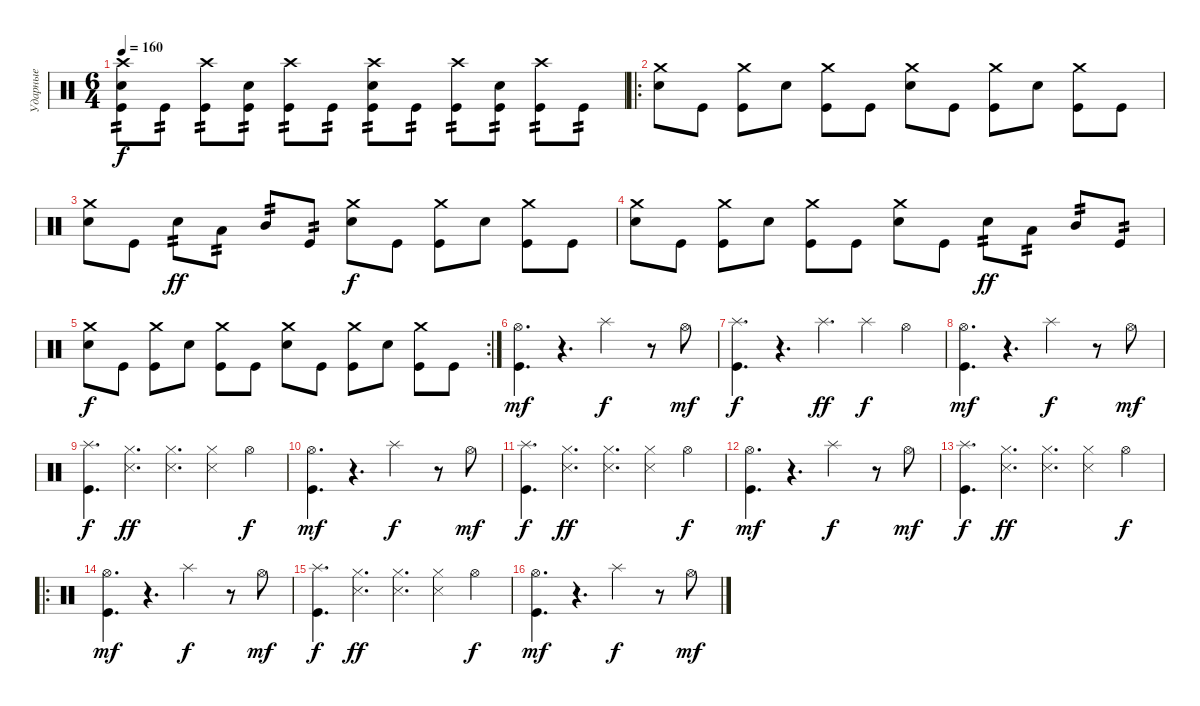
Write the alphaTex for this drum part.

\track ("Ударные" "Ударные") {instrument percussion}
\staff {score}
\articulation defaults
\ts (6 4)
\tempo 160
\clef neutral
\ks c
("Crash high (hit)" "Snare (hit) 2" "Kick (hit)").8{tp 2 dy f} "Kick (hit)".8{tp 2} ("Crash high (hit)" "Kick (hit)").8{tp 2} ("Snare (hit) 2" "Kick (hit)").8{tp 2} ("Crash high (hit)" "Kick (hit)").8{tp 2} "Kick (hit)".8{tp 2} ("Crash high (hit)" "Snare (hit) 2" "Kick (hit)").8{tp 2} "Kick (hit)".8{tp 2} ("Crash high (hit)" "Kick (hit)").8{tp 2} ("Snare (hit) 2" "Kick (hit)").8{tp 2} ("Crash high (hit)" "Kick (hit)").8{tp 2} "Kick (hit)".8{tp 2} |
\ro
("Crash medium (hit)" "Snare (hit) 2").8 "Kick (hit)".8 ("Crash medium (hit)" "Kick (hit)").8 "Snare (hit) 2".8 ("Crash medium (hit)" "Kick (hit)").8 "Kick (hit)".8 ("Crash medium (hit)" "Snare (hit) 2").8 "Kick (hit)".8 ("Crash medium (hit)" "Kick (hit)").8 "Snare (hit) 2".8 ("Crash medium (hit)" "Kick (hit)").8 "Kick (hit)".8 |
("Crash medium (hit)" "Snare (hit) 2").8 "Kick (hit)".8 "Snare (hit) 2".8{tp 2 dy ff} "Low Tom (hit)".8{tp 2} "Mid Tom (hit)".8{tp 2} "Kick (hit)".8{tp 2} ("Crash medium (hit)" "Snare (hit) 2").8{dy f} "Kick (hit)".8 ("Crash medium (hit)" "Kick (hit)").8 "Snare (hit) 2".8 ("Crash medium (hit)" "Kick (hit)").8 "Kick (hit)".8 |
("Crash medium (hit)" "Snare (hit) 2").8 "Kick (hit)".8 ("Crash medium (hit)" "Kick (hit)").8 "Snare (hit) 2".8 ("Crash medium (hit)" "Kick (hit)").8 "Kick (hit)".8 ("Crash medium (hit)" "Snare (hit) 2").8 "Kick (hit)".8 "Snare (hit) 2".8{tp 2 dy ff} "Low Tom (hit)".8{tp 2} "Mid Tom (hit)".8{tp 2} "Kick (hit)".8{tp 2} |
\rc 2
("Crash medium (hit)" "Snare (hit) 2").8{dy f} "Kick (hit)".8 ("Crash medium (hit)" "Kick (hit)").8 "Snare (hit) 2".8 ("Crash medium (hit)" "Kick (hit)").8 "Kick (hit)".8 ("Crash medium (hit)" "Snare (hit) 2").8 "Kick (hit)".8 ("Crash medium (hit)" "Kick (hit)").8 "Snare (hit) 2".8 ("Crash medium (hit)" "Kick (hit)").8 "Kick (hit)".8 |
("Hi-Hat (open)" "Kick (hit)").4{d dy mf} r.4{d} "Splash (hit)".2{dy f} r.8 "Hi-Hat (open)".8{dy mf} |
("Splash (hit)" "Kick (hit)").4{d dy f} r.4{d} "Splash (hit)".4{d dy ff} "Splash (hit)".4{dy f} "Hi-Hat (open)".4 |
("Hi-Hat (open)" "Kick (hit)").4{d dy mf} r.4{d} "Splash (hit)".2{dy f} r.8 "Hi-Hat (open)".8{dy mf} |
("Splash (hit)" "Kick (hit)").4{d dy f} ("Hi-Hat (closed)" "Snare (side stick) 3").4{d dy ff} ("Hi-Hat (closed)" "Snare (side stick) 3").4{d} ("Hi-Hat (closed)" "Snare (side stick) 3").4 "Hi-Hat (open)".4{dy f} |
("Hi-Hat (open)" "Kick (hit)").4{d dy mf} r.4{d} "Splash (hit)".2{dy f} r.8 "Hi-Hat (open)".8{dy mf} |
("Splash (hit)" "Kick (hit)").4{d dy f} ("Hi-Hat (closed)" "Snare (side stick) 3").4{d dy ff} ("Hi-Hat (closed)" "Snare (side stick) 3").4{d} ("Hi-Hat (closed)" "Snare (side stick) 3").4 "Hi-Hat (open)".4{dy f} |
("Hi-Hat (open)" "Kick (hit)").4{d dy mf} r.4{d} "Splash (hit)".2{dy f} r.8 "Hi-Hat (open)".8{dy mf} |
("Splash (hit)" "Kick (hit)").4{d dy f} ("Hi-Hat (closed)" "Snare (side stick) 3").4{d dy ff} ("Hi-Hat (closed)" "Snare (side stick) 3").4{d} ("Hi-Hat (closed)" "Snare (side stick) 3").4 "Hi-Hat (open)".4{dy f} |
\ro
("Hi-Hat (open)" "Kick (hit)").4{d dy mf} r.4{d} "Splash (hit)".2{dy f} r.8 "Hi-Hat (open)".8{dy mf} |
("Splash (hit)" "Kick (hit)").4{d dy f} ("Hi-Hat (closed)" "Snare (side stick) 3").4{d dy ff} ("Hi-Hat (closed)" "Snare (side stick) 3").4{d} ("Hi-Hat (closed)" "Snare (side stick) 3").4 "Hi-Hat (open)".4{dy f} |
("Hi-Hat (open)" "Kick (hit)").4{d dy mf} r.4{d} "Splash (hit)".2{dy f} r.8 "Hi-Hat (open)".8{dy mf}
